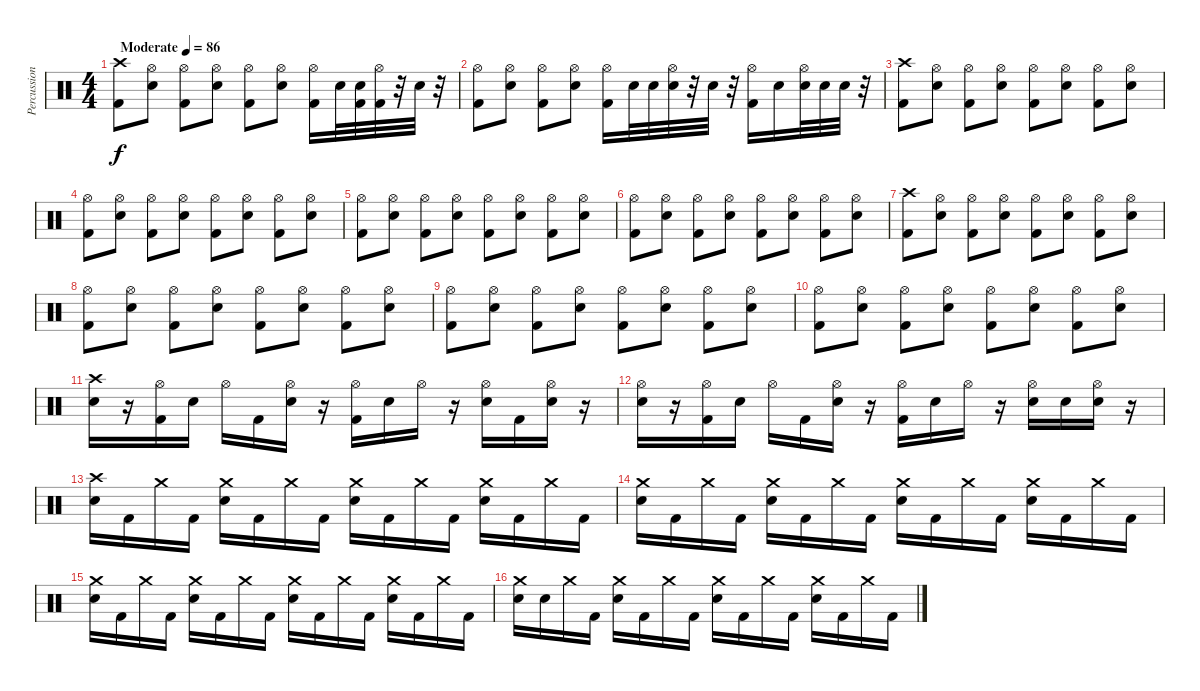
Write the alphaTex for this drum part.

\track ("Percussion" "Percussion") {instrument percussion}
\staff {score}
\articulation defaults
\ts (4 4)
\tempo (86 "Moderate")
\clef neutral
\ks c
("Crash high (hit)" "Kick (hit) 2").8{dy f} ("Hi-Hat (open)" "Snare (hit) 2").8 ("Hi-Hat (open)" "Kick (hit) 2").8 ("Hi-Hat (open)" "Snare (hit) 2").8 ("Hi-Hat (open)" "Kick (hit) 2").8 ("Hi-Hat (open)" "Snare (hit) 2").8 ("Hi-Hat (open)" "Kick (hit) 2").16 "Snare (hit) 2".32 ("Snare (hit) 2" "Kick (hit) 2").32 ("Hi-Hat (open)" "Kick (hit) 2").32 r.32 "Snare (hit) 2".32 r.32 |
("Hi-Hat (open)" "Kick (hit) 2").8 ("Hi-Hat (open)" "Snare (hit) 2").8 ("Hi-Hat (open)" "Kick (hit) 2").8 ("Hi-Hat (open)" "Snare (hit) 2").8 ("Hi-Hat (open)" "Kick (hit) 2").16 "Snare (hit) 2".32 "Snare (hit) 2".32 ("Hi-Hat (open)" "Snare (hit) 2").32 r.32 "Snare (hit) 2".32 r.32 ("Hi-Hat (open)" "Kick (hit) 2").16 "Snare (hit) 2".16 ("Hi-Hat (open)" "Snare (hit) 2").32 "Snare (hit) 2".32 "Snare (hit) 2".32 r.32 |
("Crash high (hit)" "Kick (hit) 2").8 ("Hi-Hat (open)" "Snare (hit) 2").8 ("Hi-Hat (open)" "Kick (hit) 2").8 ("Hi-Hat (open)" "Snare (hit) 2").8 ("Hi-Hat (open)" "Kick (hit) 2").8 ("Hi-Hat (open)" "Snare (hit) 2").8 ("Hi-Hat (open)" "Kick (hit) 2").8 ("Hi-Hat (open)" "Snare (hit) 2").8 |
("Hi-Hat (open)" "Kick (hit) 2").8 ("Hi-Hat (open)" "Snare (hit) 2").8 ("Hi-Hat (open)" "Kick (hit) 2").8 ("Hi-Hat (open)" "Snare (hit) 2").8 ("Hi-Hat (open)" "Kick (hit) 2").8 ("Hi-Hat (open)" "Snare (hit) 2").8 ("Hi-Hat (open)" "Kick (hit) 2").8 ("Hi-Hat (open)" "Snare (hit) 2").8 |
("Hi-Hat (open)" "Kick (hit) 2").8 ("Hi-Hat (open)" "Snare (hit) 2").8 ("Hi-Hat (open)" "Kick (hit) 2").8 ("Hi-Hat (open)" "Snare (hit) 2").8 ("Hi-Hat (open)" "Kick (hit) 2").8 ("Hi-Hat (open)" "Snare (hit) 2").8 ("Hi-Hat (open)" "Kick (hit) 2").8 ("Hi-Hat (open)" "Snare (hit) 2").8 |
("Hi-Hat (open)" "Kick (hit) 2").8 ("Hi-Hat (open)" "Snare (hit) 2").8 ("Hi-Hat (open)" "Kick (hit) 2").8 ("Hi-Hat (open)" "Snare (hit) 2").8 ("Hi-Hat (open)" "Kick (hit) 2").8 ("Hi-Hat (open)" "Snare (hit) 2").8 ("Hi-Hat (open)" "Kick (hit) 2").8 ("Hi-Hat (open)" "Snare (hit) 2").8 |
("Crash high (hit)" "Kick (hit) 2").8 ("Hi-Hat (open)" "Snare (hit) 2").8 ("Hi-Hat (open)" "Kick (hit) 2").8 ("Hi-Hat (open)" "Snare (hit) 2").8 ("Hi-Hat (open)" "Kick (hit) 2").8 ("Hi-Hat (open)" "Snare (hit) 2").8 ("Hi-Hat (open)" "Kick (hit) 2").8 ("Hi-Hat (open)" "Snare (hit) 2").8 |
("Hi-Hat (open)" "Kick (hit) 2").8 ("Hi-Hat (open)" "Snare (hit) 2").8 ("Hi-Hat (open)" "Kick (hit) 2").8 ("Hi-Hat (open)" "Snare (hit) 2").8 ("Hi-Hat (open)" "Kick (hit) 2").8 ("Hi-Hat (open)" "Snare (hit) 2").8 ("Hi-Hat (open)" "Kick (hit) 2").8 ("Hi-Hat (open)" "Snare (hit) 2").8 |
("Hi-Hat (open)" "Kick (hit) 2").8 ("Hi-Hat (open)" "Snare (hit) 2").8 ("Hi-Hat (open)" "Kick (hit) 2").8 ("Hi-Hat (open)" "Snare (hit) 2").8 ("Hi-Hat (open)" "Kick (hit) 2").8 ("Hi-Hat (open)" "Snare (hit) 2").8 ("Hi-Hat (open)" "Kick (hit) 2").8 ("Hi-Hat (open)" "Snare (hit) 2").8 |
("Hi-Hat (open)" "Kick (hit) 2").8 ("Hi-Hat (open)" "Snare (hit) 2").8 ("Hi-Hat (open)" "Kick (hit) 2").8 ("Hi-Hat (open)" "Snare (hit) 2").8 ("Hi-Hat (open)" "Kick (hit) 2").8 ("Hi-Hat (open)" "Snare (hit) 2").8 ("Hi-Hat (open)" "Kick (hit) 2").8 ("Hi-Hat (open)" "Snare (hit) 2").8 |
("Crash high (hit)" "Snare (hit) 2").16 r.16 ("Hi-Hat (open)" "Kick (hit) 2").16 "Snare (hit) 2".16 "Hi-Hat (open)".16 "Kick (hit) 2".16 ("Hi-Hat (open)" "Snare (hit) 2").16 r.16 ("Hi-Hat (open)" "Kick (hit) 2").16 "Snare (hit) 2".16 "Hi-Hat (open)".16 r.16 ("Hi-Hat (open)" "Snare (hit) 2").16 "Kick (hit) 2".16 ("Hi-Hat (open)" "Snare (hit) 2").16 r.16 |
("Hi-Hat (open)" "Snare (hit) 2").16 r.16 ("Hi-Hat (open)" "Kick (hit) 2").16 "Snare (hit) 2".16 "Hi-Hat (open)".16 "Kick (hit) 2".16 ("Hi-Hat (open)" "Snare (hit) 2").16 r.16 ("Hi-Hat (open)" "Kick (hit) 2").16 "Snare (hit) 2".16 "Hi-Hat (open)".16 r.16 ("Hi-Hat (open)" "Snare (hit) 2").16 "Snare (hit) 2".16 ("Hi-Hat (open)" "Snare (hit) 2").16 r.16 |
("Crash high (hit)" "Snare (hit) 2").16 "Kick (hit) 2".16 "Crash medium (hit)".16 "Kick (hit) 2".16 ("Crash medium (hit)" "Snare (hit) 2").16 "Kick (hit) 2".16 "Crash medium (hit)".16 "Kick (hit) 2".16 ("Crash medium (hit)" "Snare (hit) 2").16 "Kick (hit) 2".16 "Crash medium (hit)".16 "Kick (hit) 2".16 ("Crash medium (hit)" "Snare (hit) 2").16 "Kick (hit) 2".16 "Crash medium (hit)".16 "Kick (hit) 2".16 |
("Crash medium (hit)" "Snare (hit) 2").16 "Kick (hit) 2".16 "Crash medium (hit)".16 "Kick (hit) 2".16 ("Crash medium (hit)" "Snare (hit) 2").16 "Kick (hit) 2".16 "Crash medium (hit)".16 "Kick (hit) 2".16 ("Crash medium (hit)" "Snare (hit) 2").16 "Kick (hit) 2".16 "Crash medium (hit)".16 "Kick (hit) 2".16 ("Crash medium (hit)" "Snare (hit) 2").16 "Kick (hit) 2".16 "Crash medium (hit)".16 "Kick (hit) 2".16 |
("Crash medium (hit)" "Snare (hit) 2").16 "Kick (hit) 2".16 "Crash medium (hit)".16 "Kick (hit) 2".16 ("Crash medium (hit)" "Snare (hit) 2").16 "Kick (hit) 2".16 "Crash medium (hit)".16 "Kick (hit) 2".16 ("Crash medium (hit)" "Snare (hit) 2").16 "Kick (hit) 2".16 "Crash medium (hit)".16 "Kick (hit) 2".16 ("Crash medium (hit)" "Snare (hit) 2").16 "Kick (hit) 2".16 "Crash medium (hit)".16 "Kick (hit) 2".16 |
("Crash medium (hit)" "Snare (hit) 2").16 "Snare (hit) 2".16 "Crash medium (hit)".16 "Kick (hit) 2".16 ("Crash medium (hit)" "Snare (hit) 2").16 "Kick (hit) 2".16 "Crash medium (hit)".16 "Kick (hit) 2".16 ("Crash medium (hit)" "Snare (hit) 2").16 "Kick (hit) 2".16 "Crash medium (hit)".16 "Kick (hit) 2".16 ("Crash medium (hit)" "Snare (hit) 2").16 "Kick (hit) 2".16 "Crash medium (hit)".16 "Kick (hit) 2".16
